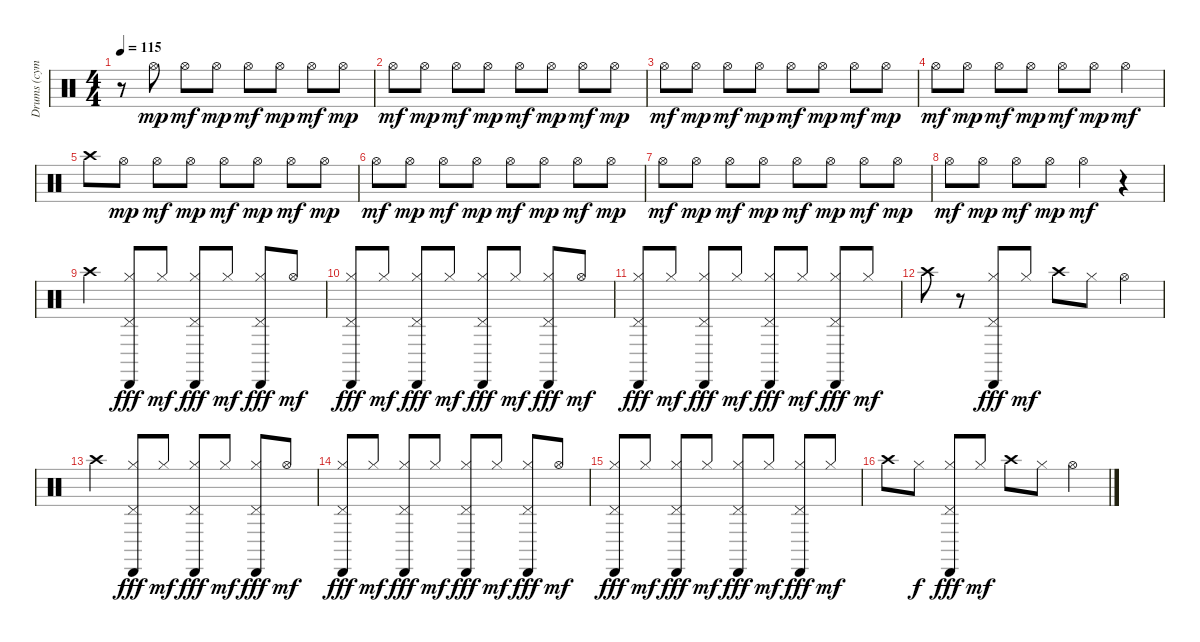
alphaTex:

\track ("Drums (cymbals)" "Drums (cym") {instrument percussion}
\staff {score}
\articulation defaults
\ts (4 4)
\tempo 115
\clef neutral
\ks c
r.8{dy mf} "Hi-Hat (open)".8{dy mp} "Hi-Hat (open)".8{dy mf} "Hi-Hat (open)".8{dy mp} "Hi-Hat (open)".8{dy mf} "Hi-Hat (open)".8{dy mp} "Hi-Hat (open)".8{dy mf} "Hi-Hat (open)".8{dy mp} |
"Hi-Hat (open)".8{dy mf} "Hi-Hat (open)".8{dy mp} "Hi-Hat (open)".8{dy mf} "Hi-Hat (open)".8{dy mp} "Hi-Hat (open)".8{dy mf} "Hi-Hat (open)".8{dy mp} "Hi-Hat (open)".8{dy mf} "Hi-Hat (open)".8{dy mp} |
"Hi-Hat (open)".8{dy mf} "Hi-Hat (open)".8{dy mp} "Hi-Hat (open)".8{dy mf} "Hi-Hat (open)".8{dy mp} "Hi-Hat (open)".8{dy mf} "Hi-Hat (open)".8{dy mp} "Hi-Hat (open)".8{dy mf} "Hi-Hat (open)".8{dy mp} |
"Hi-Hat (open)".8{dy mf} "Hi-Hat (open)".8{dy mp} "Hi-Hat (open)".8{dy mf} "Hi-Hat (open)".8{dy mp} "Hi-Hat (open)".8{dy mf} "Hi-Hat (open)".8{dy mp} "Hi-Hat (open)".4{dy mf} |
"Crash high (hit)".8 "Hi-Hat (open)".8{dy mp} "Hi-Hat (open)".8{dy mf} "Hi-Hat (open)".8{dy mp} "Hi-Hat (open)".8{dy mf} "Hi-Hat (open)".8{dy mp} "Hi-Hat (open)".8{dy mf} "Hi-Hat (open)".8{dy mp} |
"Hi-Hat (open)".8{dy mf} "Hi-Hat (open)".8{dy mp} "Hi-Hat (open)".8{dy mf} "Hi-Hat (open)".8{dy mp} "Hi-Hat (open)".8{dy mf} "Hi-Hat (open)".8{dy mp} "Hi-Hat (open)".8{dy mf} "Hi-Hat (open)".8{dy mp} |
"Hi-Hat (open)".8{dy mf} "Hi-Hat (open)".8{dy mp} "Hi-Hat (open)".8{dy mf} "Hi-Hat (open)".8{dy mp} "Hi-Hat (open)".8{dy mf} "Hi-Hat (open)".8{dy mp} "Hi-Hat (open)".8{dy mf} "Hi-Hat (open)".8{dy mp} |
"Hi-Hat (open)".8{dy mf} "Hi-Hat (open)".8{dy mp} "Hi-Hat (open)".8{dy mf} "Hi-Hat (open)".8{dy mp} "Hi-Hat (open)".4{dy mf} r.4 |
"Crash high (hit)".4 ("Hi-Hat (closed)" "Pedal Hi-Hat (hit)" "Cabasa (hit)").8{dy fff} "Hi-Hat (closed)".8{dy mf} ("Hi-Hat (closed)" "Pedal Hi-Hat (hit)" "Cabasa (hit)").8{dy fff} "Hi-Hat (closed)".8{dy mf} ("Hi-Hat (closed)" "Pedal Hi-Hat (hit)" "Cabasa (hit)").8{dy fff} "Hi-Hat (open)".8{dy mf} |
("Hi-Hat (closed)" "Pedal Hi-Hat (hit)" "Cabasa (hit)").8{dy fff} "Hi-Hat (closed)".8{dy mf} ("Hi-Hat (closed)" "Pedal Hi-Hat (hit)" "Cabasa (hit)").8{dy fff} "Hi-Hat (closed)".8{dy mf} ("Hi-Hat (closed)" "Pedal Hi-Hat (hit)" "Cabasa (hit)").8{dy fff} "Hi-Hat (closed)".8{dy mf} ("Hi-Hat (closed)" "Pedal Hi-Hat (hit)" "Cabasa (hit)").8{dy fff} "Hi-Hat (open)".8{dy mf} |
("Hi-Hat (closed)" "Pedal Hi-Hat (hit)" "Cabasa (hit)").8{dy fff} "Hi-Hat (closed)".8{dy mf} ("Hi-Hat (closed)" "Pedal Hi-Hat (hit)" "Cabasa (hit)").8{dy fff} "Hi-Hat (closed)".8{dy mf} ("Hi-Hat (closed)" "Pedal Hi-Hat (hit)" "Cabasa (hit)").8{dy fff} "Hi-Hat (closed)".8{dy mf} ("Hi-Hat (closed)" "Pedal Hi-Hat (hit)" "Cabasa (hit)").8{dy fff} "Hi-Hat (closed)".8{dy mf} |
"Crash high (hit)".8 r.8 ("Hi-Hat (closed)" "Pedal Hi-Hat (hit)" "Cabasa (hit)").8{dy fff} "Hi-Hat (closed)".8{dy mf} "Crash high (hit)".8 "Hi-Hat (closed)".8 "Hi-Hat (open)".4 |
"Crash high (hit)".4 ("Hi-Hat (closed)" "Pedal Hi-Hat (hit)" "Cabasa (hit)").8{dy fff} "Hi-Hat (closed)".8{dy mf} ("Hi-Hat (closed)" "Pedal Hi-Hat (hit)" "Cabasa (hit)").8{dy fff} "Hi-Hat (closed)".8{dy mf} ("Hi-Hat (closed)" "Pedal Hi-Hat (hit)" "Cabasa (hit)").8{dy fff} "Hi-Hat (open)".8{dy mf} |
("Hi-Hat (closed)" "Pedal Hi-Hat (hit)" "Cabasa (hit)").8{dy fff} "Hi-Hat (closed)".8{dy mf} ("Hi-Hat (closed)" "Pedal Hi-Hat (hit)" "Cabasa (hit)").8{dy fff} "Hi-Hat (closed)".8{dy mf} ("Hi-Hat (closed)" "Pedal Hi-Hat (hit)" "Cabasa (hit)").8{dy fff} "Hi-Hat (closed)".8{dy mf} ("Hi-Hat (closed)" "Pedal Hi-Hat (hit)" "Cabasa (hit)").8{dy fff} "Hi-Hat (open)".8{dy mf} |
("Hi-Hat (closed)" "Pedal Hi-Hat (hit)" "Cabasa (hit)").8{dy fff} "Hi-Hat (closed)".8{dy mf} ("Hi-Hat (closed)" "Pedal Hi-Hat (hit)" "Cabasa (hit)").8{dy fff} "Hi-Hat (closed)".8{dy mf} ("Hi-Hat (closed)" "Pedal Hi-Hat (hit)" "Cabasa (hit)").8{dy fff} "Hi-Hat (closed)".8{dy mf} ("Hi-Hat (closed)" "Pedal Hi-Hat (hit)" "Cabasa (hit)").8{dy fff} "Hi-Hat (closed)".8{dy mf} |
"Crash high (hit)".8 "Hi-Hat (closed)".8{dy f} ("Hi-Hat (closed)" "Pedal Hi-Hat (hit)" "Cabasa (hit)").8{dy fff} "Hi-Hat (closed)".8{dy mf} "Crash high (hit)".8 "Hi-Hat (closed)".8 "Hi-Hat (open)".4
